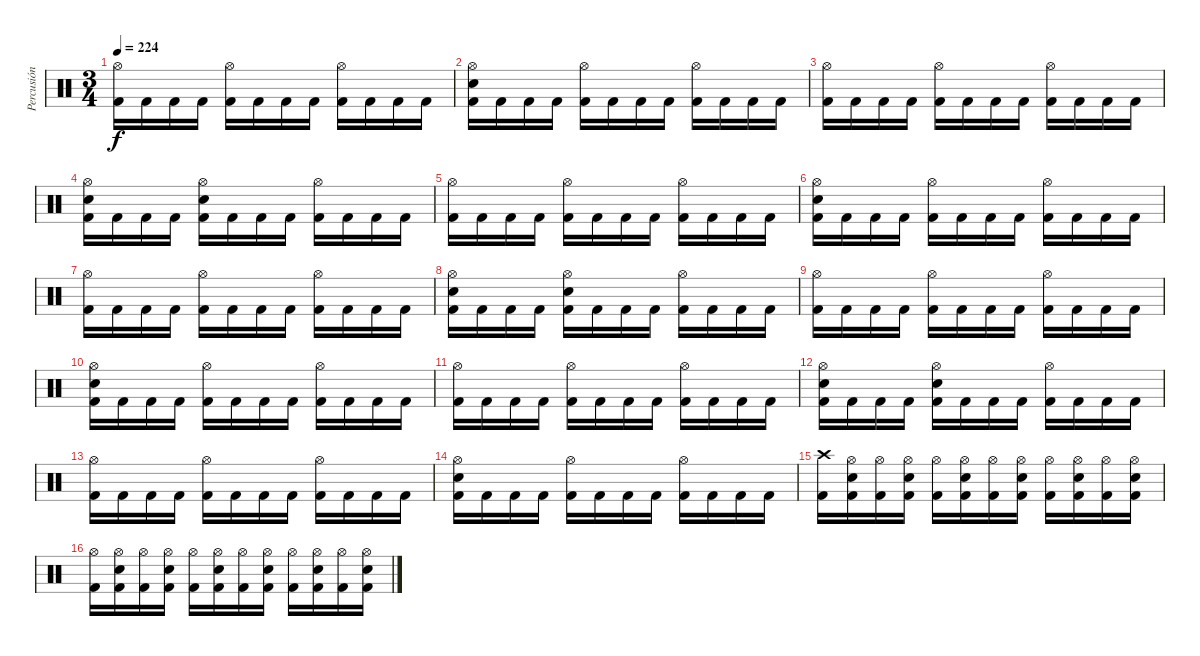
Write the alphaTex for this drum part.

\track ("Percusión" "Percusión") {instrument percussion}
\staff {score}
\articulation defaults
\ts (3 4)
\tempo 224
\clef neutral
\ks c
("Hi-Hat (open)" "Kick (hit) 2").16{dy f} "Kick (hit) 2".16 "Kick (hit) 2".16 "Kick (hit) 2".16 ("Hi-Hat (open)" "Kick (hit) 2").16 "Kick (hit) 2".16 "Kick (hit) 2".16 "Kick (hit) 2".16 ("Hi-Hat (open)" "Kick (hit) 2").16 "Kick (hit) 2".16 "Kick (hit) 2".16 "Kick (hit) 2".16 |
("Hi-Hat (open)" "Electric Snare (hit)" "Kick (hit) 2").16 "Kick (hit) 2".16 "Kick (hit) 2".16 "Kick (hit) 2".16 ("Hi-Hat (open)" "Kick (hit) 2").16 "Kick (hit) 2".16 "Kick (hit) 2".16 "Kick (hit) 2".16 ("Hi-Hat (open)" "Kick (hit) 2").16 "Kick (hit) 2".16 "Kick (hit) 2".16 "Kick (hit) 2".16 |
("Hi-Hat (open)" "Kick (hit) 2").16 "Kick (hit) 2".16 "Kick (hit) 2".16 "Kick (hit) 2".16 ("Hi-Hat (open)" "Kick (hit) 2").16 "Kick (hit) 2".16 "Kick (hit) 2".16 "Kick (hit) 2".16 ("Hi-Hat (open)" "Kick (hit) 2").16 "Kick (hit) 2".16 "Kick (hit) 2".16 "Kick (hit) 2".16 |
("Hi-Hat (open)" "Electric Snare (hit)" "Kick (hit) 2").16 "Kick (hit) 2".16 "Kick (hit) 2".16 "Kick (hit) 2".16 ("Hi-Hat (open)" "Electric Snare (hit)" "Kick (hit) 2").16 "Kick (hit) 2".16 "Kick (hit) 2".16 "Kick (hit) 2".16 ("Hi-Hat (open)" "Kick (hit) 2").16 "Kick (hit) 2".16 "Kick (hit) 2".16 "Kick (hit) 2".16 |
("Hi-Hat (open)" "Kick (hit) 2").16 "Kick (hit) 2".16 "Kick (hit) 2".16 "Kick (hit) 2".16 ("Hi-Hat (open)" "Kick (hit) 2").16 "Kick (hit) 2".16 "Kick (hit) 2".16 "Kick (hit) 2".16 ("Hi-Hat (open)" "Kick (hit) 2").16 "Kick (hit) 2".16 "Kick (hit) 2".16 "Kick (hit) 2".16 |
("Hi-Hat (open)" "Electric Snare (hit)" "Kick (hit) 2").16 "Kick (hit) 2".16 "Kick (hit) 2".16 "Kick (hit) 2".16 ("Hi-Hat (open)" "Kick (hit) 2").16 "Kick (hit) 2".16 "Kick (hit) 2".16 "Kick (hit) 2".16 ("Hi-Hat (open)" "Kick (hit) 2").16 "Kick (hit) 2".16 "Kick (hit) 2".16 "Kick (hit) 2".16 |
("Hi-Hat (open)" "Kick (hit) 2").16 "Kick (hit) 2".16 "Kick (hit) 2".16 "Kick (hit) 2".16 ("Hi-Hat (open)" "Kick (hit) 2").16 "Kick (hit) 2".16 "Kick (hit) 2".16 "Kick (hit) 2".16 ("Hi-Hat (open)" "Kick (hit) 2").16 "Kick (hit) 2".16 "Kick (hit) 2".16 "Kick (hit) 2".16 |
("Hi-Hat (open)" "Electric Snare (hit)" "Kick (hit) 2").16 "Kick (hit) 2".16 "Kick (hit) 2".16 "Kick (hit) 2".16 ("Hi-Hat (open)" "Electric Snare (hit)" "Kick (hit) 2").16 "Kick (hit) 2".16 "Kick (hit) 2".16 "Kick (hit) 2".16 ("Hi-Hat (open)" "Kick (hit) 2").16 "Kick (hit) 2".16 "Kick (hit) 2".16 "Kick (hit) 2".16 |
("Hi-Hat (open)" "Kick (hit) 2").16 "Kick (hit) 2".16 "Kick (hit) 2".16 "Kick (hit) 2".16 ("Hi-Hat (open)" "Kick (hit) 2").16 "Kick (hit) 2".16 "Kick (hit) 2".16 "Kick (hit) 2".16 ("Hi-Hat (open)" "Kick (hit) 2").16 "Kick (hit) 2".16 "Kick (hit) 2".16 "Kick (hit) 2".16 |
("Hi-Hat (open)" "Electric Snare (hit)" "Kick (hit) 2").16 "Kick (hit) 2".16 "Kick (hit) 2".16 "Kick (hit) 2".16 ("Hi-Hat (open)" "Kick (hit) 2").16 "Kick (hit) 2".16 "Kick (hit) 2".16 "Kick (hit) 2".16 ("Hi-Hat (open)" "Kick (hit) 2").16 "Kick (hit) 2".16 "Kick (hit) 2".16 "Kick (hit) 2".16 |
("Hi-Hat (open)" "Kick (hit) 2").16 "Kick (hit) 2".16 "Kick (hit) 2".16 "Kick (hit) 2".16 ("Hi-Hat (open)" "Kick (hit) 2").16 "Kick (hit) 2".16 "Kick (hit) 2".16 "Kick (hit) 2".16 ("Hi-Hat (open)" "Kick (hit) 2").16 "Kick (hit) 2".16 "Kick (hit) 2".16 "Kick (hit) 2".16 |
("Hi-Hat (open)" "Electric Snare (hit)" "Kick (hit) 2").16 "Kick (hit) 2".16 "Kick (hit) 2".16 "Kick (hit) 2".16 ("Hi-Hat (open)" "Electric Snare (hit)" "Kick (hit) 2").16 "Kick (hit) 2".16 "Kick (hit) 2".16 "Kick (hit) 2".16 ("Hi-Hat (open)" "Kick (hit) 2").16 "Kick (hit) 2".16 "Kick (hit) 2".16 "Kick (hit) 2".16 |
("Hi-Hat (open)" "Kick (hit) 2").16 "Kick (hit) 2".16 "Kick (hit) 2".16 "Kick (hit) 2".16 ("Hi-Hat (open)" "Kick (hit) 2").16 "Kick (hit) 2".16 "Kick (hit) 2".16 "Kick (hit) 2".16 ("Hi-Hat (open)" "Kick (hit) 2").16 "Kick (hit) 2".16 "Kick (hit) 2".16 "Kick (hit) 2".16 |
("Hi-Hat (open)" "Electric Snare (hit)" "Kick (hit) 2").16 "Kick (hit) 2".16 "Kick (hit) 2".16 "Kick (hit) 2".16 ("Hi-Hat (open)" "Kick (hit) 2").16 "Kick (hit) 2".16 "Kick (hit) 2".16 "Kick (hit) 2".16 ("Hi-Hat (open)" "Kick (hit) 2").16 "Kick (hit) 2".16 "Kick (hit) 2".16 "Kick (hit) 2".16 |
("Crash high (hit)" "Kick (hit) 2").16 ("Hi-Hat (open)" "Electric Snare (hit)" "Kick (hit) 2").16 ("Hi-Hat (open)" "Kick (hit) 2").16 ("Hi-Hat (open)" "Electric Snare (hit)" "Kick (hit) 2").16 ("Hi-Hat (open)" "Kick (hit) 2").16 ("Hi-Hat (open)" "Electric Snare (hit)" "Kick (hit) 2").16 ("Hi-Hat (open)" "Kick (hit) 2").16 ("Hi-Hat (open)" "Electric Snare (hit)" "Kick (hit) 2").16 ("Hi-Hat (open)" "Kick (hit) 2").16 ("Hi-Hat (open)" "Electric Snare (hit)" "Kick (hit) 2").16 ("Hi-Hat (open)" "Kick (hit) 2").16 ("Hi-Hat (open)" "Electric Snare (hit)" "Kick (hit) 2").16 |
("Hi-Hat (open)" "Kick (hit) 2").16 ("Hi-Hat (open)" "Electric Snare (hit)" "Kick (hit) 2").16 ("Hi-Hat (open)" "Kick (hit) 2").16 ("Hi-Hat (open)" "Electric Snare (hit)" "Kick (hit) 2").16 ("Hi-Hat (open)" "Kick (hit) 2").16 ("Hi-Hat (open)" "Electric Snare (hit)" "Kick (hit) 2").16 ("Hi-Hat (open)" "Kick (hit) 2").16 ("Hi-Hat (open)" "Electric Snare (hit)" "Kick (hit) 2").16 ("Hi-Hat (open)" "Kick (hit) 2").16 ("Hi-Hat (open)" "Electric Snare (hit)" "Kick (hit) 2").16 ("Hi-Hat (open)" "Kick (hit) 2").16 ("Hi-Hat (open)" "Electric Snare (hit)" "Kick (hit) 2").16
